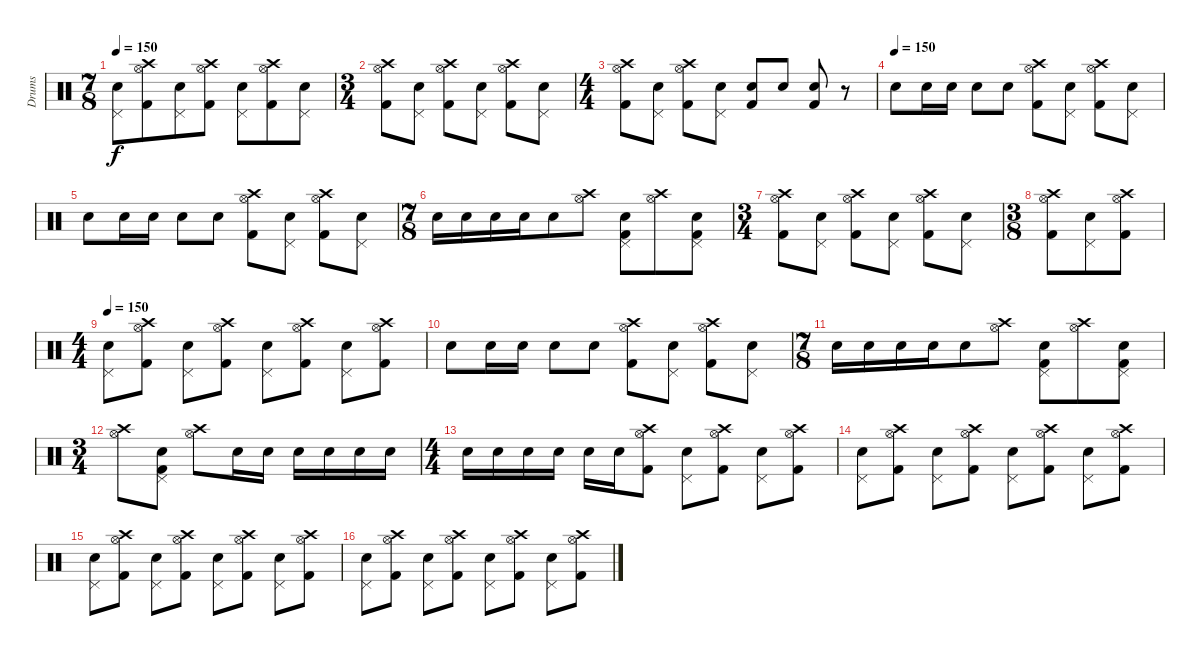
\track ("Drums" "Drums") {instrument percussion}
\staff {score}
\articulation defaults
\ts (7 8)
\tempo 150
\clef neutral
\ks c
("Pedal Hi-Hat (hit)" "Snare (hit) 2").8{dy f} ("Crash high (hit)" "Hi-Hat (open)" "Kick (hit) 2").8 ("Pedal Hi-Hat (hit)" "Snare (hit) 2").8 ("Crash high (hit)" "Hi-Hat (open)" "Kick (hit) 2").8 ("Pedal Hi-Hat (hit)" "Snare (hit) 2").8 ("Crash high (hit)" "Hi-Hat (open)" "Kick (hit) 2").8 ("Pedal Hi-Hat (hit)" "Snare (hit) 2").8 |
\ts (3 4)
("Crash high (hit)" "Hi-Hat (open)" "Kick (hit) 2").8 ("Pedal Hi-Hat (hit)" "Snare (hit) 2").8 ("Crash high (hit)" "Hi-Hat (open)" "Kick (hit) 2").8 ("Pedal Hi-Hat (hit)" "Snare (hit) 2").8 ("Crash high (hit)" "Hi-Hat (open)" "Kick (hit) 2").8 ("Pedal Hi-Hat (hit)" "Snare (hit) 2").8 |
\ts (4 4)
("Crash high (hit)" "Hi-Hat (open)" "Kick (hit) 2").8 ("Pedal Hi-Hat (hit)" "Snare (hit) 2").8 ("Crash high (hit)" "Hi-Hat (open)" "Kick (hit) 2").8 ("Pedal Hi-Hat (hit)" "Snare (hit) 2").8 ("Snare (hit) 2" "Kick (hit) 2").8 "Snare (hit) 2".8 ("Snare (hit) 2" "Kick (hit) 2").8 r.8 |
\tempo (150)
"Snare (hit) 2".8{volume 12} "Snare (hit) 2".16 "Snare (hit) 2".16 "Snare (hit) 2".8 "Snare (hit) 2".8 ("Crash high (hit)" "Hi-Hat (open)" "Kick (hit) 2").8 ("Pedal Hi-Hat (hit)" "Snare (hit) 2").8 ("Crash high (hit)" "Hi-Hat (open)" "Kick (hit) 2").8 ("Pedal Hi-Hat (hit)" "Snare (hit) 2").8 |
"Snare (hit) 2".8{volume 12} "Snare (hit) 2".16 "Snare (hit) 2".16 "Snare (hit) 2".8 "Snare (hit) 2".8 ("Crash high (hit)" "Hi-Hat (open)" "Kick (hit) 2").8 ("Pedal Hi-Hat (hit)" "Snare (hit) 2").8 ("Crash high (hit)" "Hi-Hat (open)" "Kick (hit) 2").8 ("Pedal Hi-Hat (hit)" "Snare (hit) 2").8 |
\ts (7 8)
"Snare (hit) 2".16 "Snare (hit) 2".16 "Snare (hit) 2".16 "Snare (hit) 2".16 "Snare (hit) 2".8 ("Crash high (hit)" "Hi-Hat (open)").8 ("Pedal Hi-Hat (hit)" "Snare (hit) 2" "Kick (hit) 2").8 ("Crash high (hit)" "Hi-Hat (open)").8 ("Pedal Hi-Hat (hit)" "Snare (hit) 2" "Kick (hit) 2").8 |
\ts (3 4)
("Crash high (hit)" "Hi-Hat (open)" "Kick (hit) 2").8 ("Pedal Hi-Hat (hit)" "Snare (hit) 2").8 ("Crash high (hit)" "Hi-Hat (open)" "Kick (hit) 2").8 ("Pedal Hi-Hat (hit)" "Snare (hit) 2").8 ("Crash high (hit)" "Hi-Hat (open)" "Kick (hit) 2").8 ("Pedal Hi-Hat (hit)" "Snare (hit) 2").8 |
\ts (3 8)
("Crash high (hit)" "Hi-Hat (open)" "Kick (hit) 2").8 ("Pedal Hi-Hat (hit)" "Snare (hit) 2").8 ("Crash high (hit)" "Hi-Hat (open)" "Kick (hit) 2").8 |
\ts (4 4)
\tempo 150
("Pedal Hi-Hat (hit)" "Snare (hit) 2").8 ("Crash high (hit)" "Hi-Hat (open)" "Kick (hit) 2").8 ("Pedal Hi-Hat (hit)" "Snare (hit) 2").8 ("Crash high (hit)" "Hi-Hat (open)" "Kick (hit) 2").8 ("Pedal Hi-Hat (hit)" "Snare (hit) 2").8 ("Crash high (hit)" "Hi-Hat (open)" "Kick (hit) 2").8 ("Pedal Hi-Hat (hit)" "Snare (hit) 2").8 ("Crash high (hit)" "Hi-Hat (open)" "Kick (hit) 2").8 |
"Snare (hit) 2".8{volume 12} "Snare (hit) 2".16 "Snare (hit) 2".16 "Snare (hit) 2".8 "Snare (hit) 2".8 ("Crash high (hit)" "Hi-Hat (open)" "Kick (hit) 2").8 ("Pedal Hi-Hat (hit)" "Snare (hit) 2").8 ("Crash high (hit)" "Hi-Hat (open)" "Kick (hit) 2").8 ("Pedal Hi-Hat (hit)" "Snare (hit) 2").8 |
\ts (7 8)
"Snare (hit) 2".16 "Snare (hit) 2".16 "Snare (hit) 2".16 "Snare (hit) 2".16 "Snare (hit) 2".8 ("Crash high (hit)" "Hi-Hat (open)").8{volume 14} ("Pedal Hi-Hat (hit)" "Snare (hit) 2" "Kick (hit) 2").8 ("Crash high (hit)" "Hi-Hat (open)").8 ("Pedal Hi-Hat (hit)" "Snare (hit) 2" "Kick (hit) 2").8 |
\ts (3 4)
("Crash high (hit)" "Hi-Hat (open)").8 ("Pedal Hi-Hat (hit)" "Snare (hit) 2" "Kick (hit) 2").8 ("Crash high (hit)" "Hi-Hat (open)").8 "Snare (hit) 2".16{volume 16} "Snare (hit) 2".16 "Snare (hit) 2".16 "Snare (hit) 2".16 "Snare (hit) 2".16 "Snare (hit) 2".16 |
\ts (4 4)
"Snare (hit) 2".16 "Snare (hit) 2".16 "Snare (hit) 2".16 "Snare (hit) 2".16 "Snare (hit) 2".16 "Snare (hit) 2".16 ("Crash high (hit)" "Hi-Hat (open)" "Kick (hit) 2").8 ("Pedal Hi-Hat (hit)" "Snare (hit) 2").8 ("Crash high (hit)" "Hi-Hat (open)" "Kick (hit) 2").8 ("Pedal Hi-Hat (hit)" "Snare (hit) 2").8 ("Crash high (hit)" "Hi-Hat (open)" "Kick (hit) 2").8 |
("Pedal Hi-Hat (hit)" "Snare (hit) 2").8 ("Crash high (hit)" "Hi-Hat (open)" "Kick (hit) 2").8 ("Pedal Hi-Hat (hit)" "Snare (hit) 2").8 ("Crash high (hit)" "Hi-Hat (open)" "Kick (hit) 2").8 ("Pedal Hi-Hat (hit)" "Snare (hit) 2").8 ("Crash high (hit)" "Hi-Hat (open)" "Kick (hit) 2").8 ("Pedal Hi-Hat (hit)" "Snare (hit) 2").8 ("Crash high (hit)" "Hi-Hat (open)" "Kick (hit) 2").8 |
("Pedal Hi-Hat (hit)" "Snare (hit) 2").8 ("Crash high (hit)" "Hi-Hat (open)" "Kick (hit) 2").8 ("Pedal Hi-Hat (hit)" "Snare (hit) 2").8 ("Crash high (hit)" "Hi-Hat (open)" "Kick (hit) 2").8 ("Pedal Hi-Hat (hit)" "Snare (hit) 2").8 ("Crash high (hit)" "Hi-Hat (open)" "Kick (hit) 2").8 ("Pedal Hi-Hat (hit)" "Snare (hit) 2").8 ("Crash high (hit)" "Hi-Hat (open)" "Kick (hit) 2").8 |
("Pedal Hi-Hat (hit)" "Snare (hit) 2").8 ("Crash high (hit)" "Hi-Hat (open)" "Kick (hit) 2").8 ("Pedal Hi-Hat (hit)" "Snare (hit) 2").8 ("Crash high (hit)" "Hi-Hat (open)" "Kick (hit) 2").8 ("Pedal Hi-Hat (hit)" "Snare (hit) 2").8 ("Crash high (hit)" "Hi-Hat (open)" "Kick (hit) 2").8 ("Pedal Hi-Hat (hit)" "Snare (hit) 2").8 ("Crash high (hit)" "Hi-Hat (open)" "Kick (hit) 2").8
